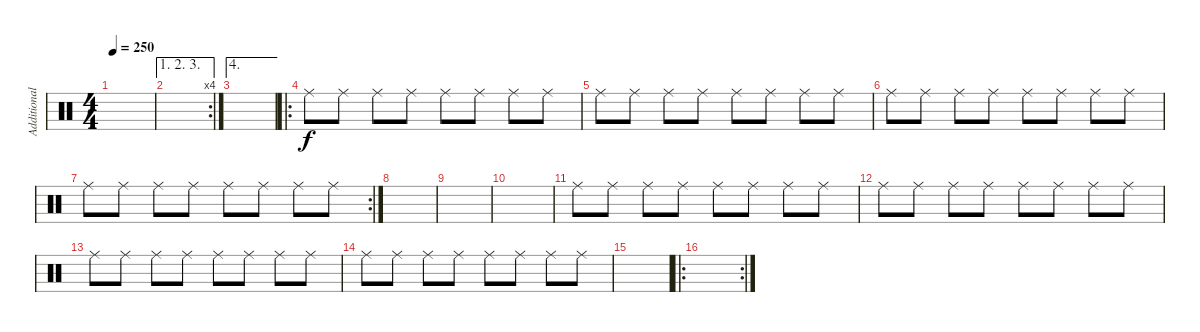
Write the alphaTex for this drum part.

\track ("Additional drums" "Additional") {instrument percussion}
\staff {score}
\articulation defaults
\ts (4 4)
\tempo 250
\clef neutral
\ks c
|
\ae (1 2 3)
\rc 4
|
\ae 4
|
\ro "Ride (middle)".8 "Ride (middle)".8 "Ride (middle)".8 "Ride (middle)".8 "Ride (middle)".8 "Ride (middle)".8 "Ride (middle)".8 "Ride (middle)".8
|
"Ride (middle)".8 "Ride (middle)".8 "Ride (middle)".8 "Ride (middle)".8 "Ride (middle)".8 "Ride (middle)".8 "Ride (middle)".8 "Ride (middle)".8 |
"Ride (middle)".8 "Ride (middle)".8 "Ride (middle)".8 "Ride (middle)".8 "Ride (middle)".8 "Ride (middle)".8 "Ride (middle)".8 "Ride (middle)".8 |
\rc 2 "Ride (middle)".8 "Ride (middle)".8 "Ride (middle)".8 "Ride (middle)".8 "Ride (middle)".8 "Ride (middle)".8 "Ride (middle)".8 "Ride (middle)".8
|
|
|
|
"Ride (middle)".8 "Ride (middle)".8 "Ride (middle)".8 "Ride (middle)".8 "Ride (middle)".8 "Ride (middle)".8 "Ride (middle)".8 "Ride (middle)".8 |
"Ride (middle)".8 "Ride (middle)".8 "Ride (middle)".8 "Ride (middle)".8 "Ride (middle)".8 "Ride (middle)".8 "Ride (middle)".8 "Ride (middle)".8 |
"Ride (middle)".8 "Ride (middle)".8 "Ride (middle)".8 "Ride (middle)".8 "Ride (middle)".8 "Ride (middle)".8 "Ride (middle)".8 "Ride (middle)".8 |
"Ride (middle)".8 "Ride (middle)".8 "Ride (middle)".8 "Ride (middle)".8 "Ride (middle)".8 "Ride (middle)".8 "Ride (middle)".8 "Ride (middle)".8 |
|
\ro
\rc 2
